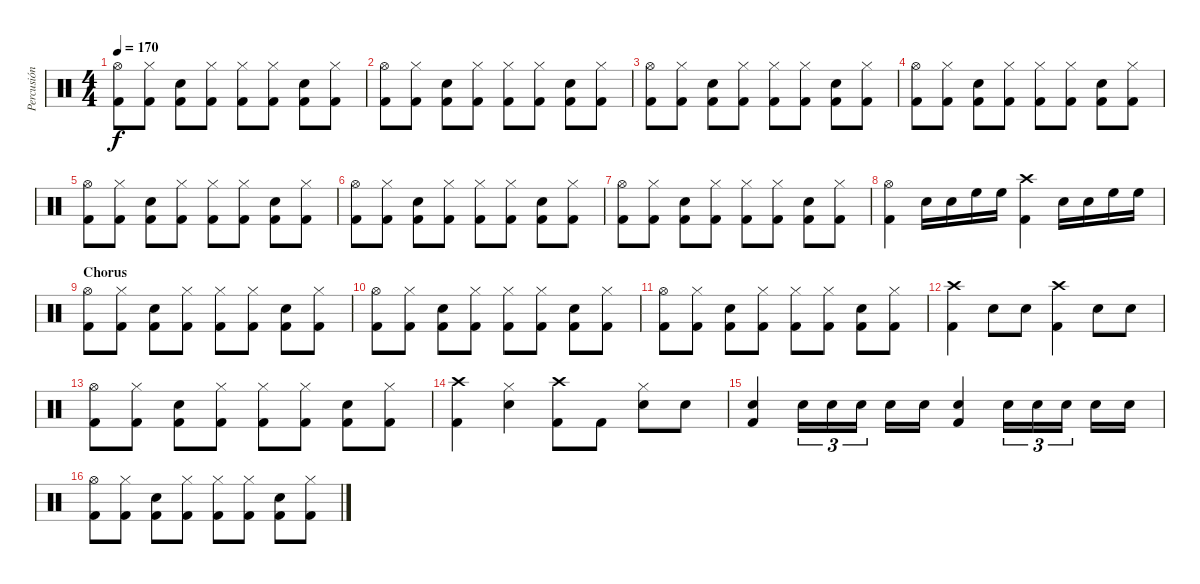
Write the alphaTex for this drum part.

\track ("Percusión" "Percusión") {instrument percussion}
\staff {score}
\articulation defaults
\ts (4 4)
\tempo 170
\clef neutral
\ks c
("Kick (hit) 2" "Hi-Hat (open)").8{dy f} ("Kick (hit) 2" "Hi-Hat (closed)").8 ("Kick (hit) 2" "Snare (hit) 2").8 ("Kick (hit) 2" "Hi-Hat (closed)").8 ("Kick (hit) 2" "Hi-Hat (closed)").8 ("Kick (hit) 2" "Hi-Hat (closed)").8 ("Kick (hit) 2" "Snare (hit) 2").8 ("Kick (hit) 2" "Hi-Hat (closed)").8 |
("Kick (hit) 2" "Hi-Hat (open)").8 ("Kick (hit) 2" "Hi-Hat (closed)").8 ("Kick (hit) 2" "Snare (hit) 2").8 ("Kick (hit) 2" "Hi-Hat (closed)").8 ("Kick (hit) 2" "Hi-Hat (closed)").8 ("Kick (hit) 2" "Hi-Hat (closed)").8 ("Kick (hit) 2" "Snare (hit) 2").8 ("Kick (hit) 2" "Hi-Hat (closed)").8 |
("Kick (hit) 2" "Hi-Hat (open)").8 ("Kick (hit) 2" "Hi-Hat (closed)").8 ("Kick (hit) 2" "Snare (hit) 2").8 ("Kick (hit) 2" "Hi-Hat (closed)").8 ("Kick (hit) 2" "Hi-Hat (closed)").8 ("Kick (hit) 2" "Hi-Hat (closed)").8 ("Kick (hit) 2" "Snare (hit) 2").8 ("Kick (hit) 2" "Hi-Hat (closed)").8 |
("Kick (hit) 2" "Hi-Hat (open)").8 ("Kick (hit) 2" "Hi-Hat (closed)").8 ("Kick (hit) 2" "Snare (hit) 2").8 ("Kick (hit) 2" "Hi-Hat (closed)").8 ("Kick (hit) 2" "Hi-Hat (closed)").8 ("Kick (hit) 2" "Hi-Hat (closed)").8 ("Kick (hit) 2" "Snare (hit) 2").8 ("Kick (hit) 2" "Hi-Hat (closed)").8 |
("Kick (hit) 2" "Hi-Hat (open)").8 ("Kick (hit) 2" "Hi-Hat (closed)").8 ("Kick (hit) 2" "Snare (hit) 2").8 ("Kick (hit) 2" "Hi-Hat (closed)").8 ("Kick (hit) 2" "Hi-Hat (closed)").8 ("Kick (hit) 2" "Hi-Hat (closed)").8 ("Kick (hit) 2" "Snare (hit) 2").8 ("Kick (hit) 2" "Hi-Hat (closed)").8 |
("Kick (hit) 2" "Hi-Hat (open)").8 ("Kick (hit) 2" "Hi-Hat (closed)").8 ("Kick (hit) 2" "Snare (hit) 2").8 ("Kick (hit) 2" "Hi-Hat (closed)").8 ("Kick (hit) 2" "Hi-Hat (closed)").8 ("Kick (hit) 2" "Hi-Hat (closed)").8 ("Kick (hit) 2" "Snare (hit) 2").8 ("Kick (hit) 2" "Hi-Hat (closed)").8 |
("Kick (hit) 2" "Hi-Hat (open)").8 ("Kick (hit) 2" "Hi-Hat (closed)").8 ("Kick (hit) 2" "Snare (hit) 2").8 ("Kick (hit) 2" "Hi-Hat (closed)").8 ("Kick (hit) 2" "Hi-Hat (closed)").8 ("Kick (hit) 2" "Hi-Hat (closed)").8 ("Kick (hit) 2" "Snare (hit) 2").8 ("Kick (hit) 2" "Hi-Hat (closed)").8 |
("Kick (hit) 2" "Hi-Hat (open)").4 "Snare (hit) 2".16 "Snare (hit) 2".16 "High Floor Tom (hit)".16 "High Floor Tom (hit)".16 ("Kick (hit) 2" "Crash high (hit)").4 "Snare (hit) 2".16 "Snare (hit) 2".16 "High Floor Tom (hit)".16 "High Floor Tom (hit)".16 |
\section ("" "Chorus")
("Kick (hit) 2" "Hi-Hat (open)").8 ("Kick (hit) 2" "Hi-Hat (closed)").8 ("Kick (hit) 2" "Snare (hit) 2").8 ("Kick (hit) 2" "Hi-Hat (closed)").8 ("Kick (hit) 2" "Hi-Hat (closed)").8 ("Kick (hit) 2" "Hi-Hat (closed)").8 ("Kick (hit) 2" "Snare (hit) 2").8 ("Kick (hit) 2" "Hi-Hat (closed)").8 |
("Kick (hit) 2" "Hi-Hat (open)").8 ("Kick (hit) 2" "Hi-Hat (closed)").8 ("Kick (hit) 2" "Snare (hit) 2").8 ("Kick (hit) 2" "Hi-Hat (closed)").8 ("Kick (hit) 2" "Hi-Hat (closed)").8 ("Kick (hit) 2" "Hi-Hat (closed)").8 ("Kick (hit) 2" "Snare (hit) 2").8 ("Kick (hit) 2" "Hi-Hat (closed)").8 |
("Kick (hit) 2" "Hi-Hat (open)").8 ("Kick (hit) 2" "Hi-Hat (closed)").8 ("Kick (hit) 2" "Snare (hit) 2").8 ("Kick (hit) 2" "Hi-Hat (closed)").8 ("Kick (hit) 2" "Hi-Hat (closed)").8 ("Kick (hit) 2" "Hi-Hat (closed)").8 ("Kick (hit) 2" "Snare (hit) 2").8 ("Kick (hit) 2" "Hi-Hat (closed)").8 |
("Kick (hit) 2" "Crash high (hit)").4 "Snare (hit) 2".8 "Snare (hit) 2".8 ("Kick (hit) 2" "Crash high (hit)").4 "Snare (hit) 2".8 "Snare (hit) 2".8 |
("Kick (hit) 2" "Hi-Hat (open)").8 ("Kick (hit) 2" "Hi-Hat (closed)").8 ("Kick (hit) 2" "Snare (hit) 2").8 ("Kick (hit) 2" "Hi-Hat (closed)").8 ("Kick (hit) 2" "Hi-Hat (closed)").8 ("Kick (hit) 2" "Hi-Hat (closed)").8 ("Kick (hit) 2" "Snare (hit) 2").8 ("Kick (hit) 2" "Hi-Hat (closed)").8 |
("Kick (hit) 2" "Crash high (hit)").4 ("Snare (hit) 2" "Hi-Hat (closed)").4 ("Kick (hit) 2" "Crash high (hit)").8 "Kick (hit) 2".8 ("Snare (hit) 2" "Hi-Hat (closed)").8 "Snare (hit) 2".8 |
("Kick (hit) 2" "Snare (hit) 2").4 "Snare (hit) 2".16{tu (3 2)} "Snare (hit) 2".16{tu (3 2)} "Snare (hit) 2".16{tu (3 2)} "Snare (hit) 2".16 "Snare (hit) 2".16 ("Kick (hit) 2" "Snare (hit) 2").4 "Snare (hit) 2".16{tu (3 2)} "Snare (hit) 2".16{tu (3 2)} "Snare (hit) 2".16{tu (3 2)} "Snare (hit) 2".16 "Snare (hit) 2".16 |
("Kick (hit) 2" "Hi-Hat (open)").8 ("Kick (hit) 2" "Hi-Hat (closed)").8 ("Kick (hit) 2" "Snare (hit) 2").8 ("Kick (hit) 2" "Hi-Hat (closed)").8 ("Kick (hit) 2" "Hi-Hat (closed)").8 ("Kick (hit) 2" "Hi-Hat (closed)").8 ("Kick (hit) 2" "Snare (hit) 2").8 ("Kick (hit) 2" "Hi-Hat (closed)").8
